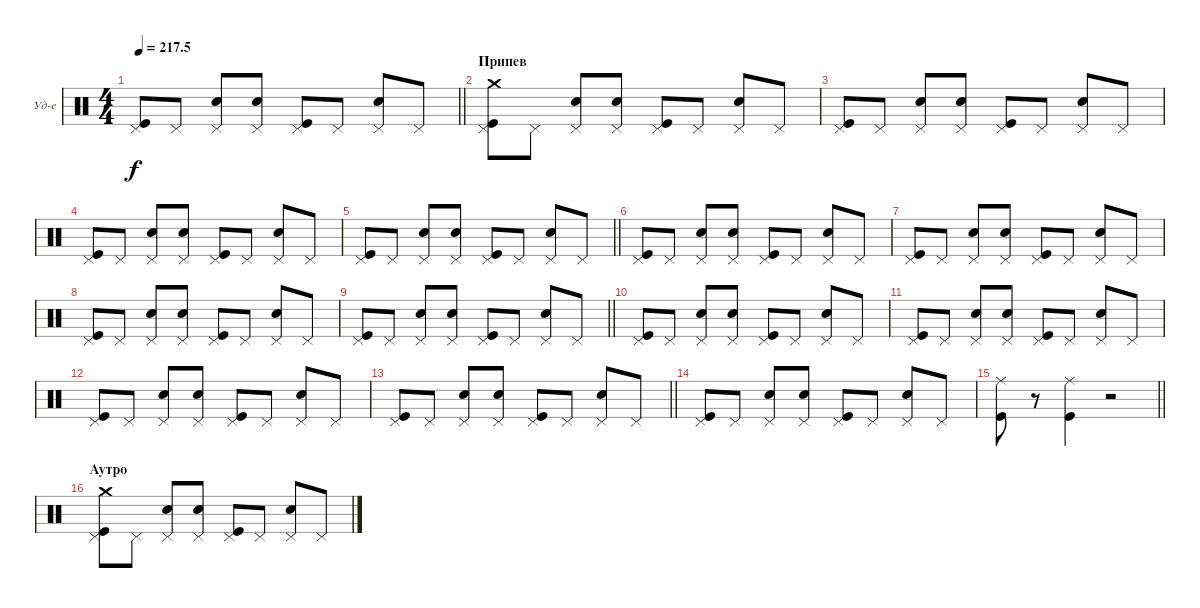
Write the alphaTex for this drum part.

\bracketExtendMode groupsimilarinstruments
\firstSystemTrackNameOrientation horizontal
\otherSystemsTrackNameOrientation horizontal
\track ("Ударные" "Уд-е") {instrument percussion}
\staff {score}
\articulation defaults
\ts (4 4)
\tempo
217.5
\accidentals auto
\clef neutral
\ottava regular
\simile none
\barLineRight lightlight
\ks c
("Pedal Hi-Hat (hit)" "Kick (hit)").8{dy f} "Pedal Hi-Hat (hit)".8 ("Pedal Hi-Hat (hit)" "Snare (hit) 2").8 ("Pedal Hi-Hat (hit)" "Snare (hit) 2").8 ("Pedal Hi-Hat (hit)" "Kick (hit)").8 "Pedal Hi-Hat (hit)".8 ("Pedal Hi-Hat (hit)" "Snare (hit) 2").8 "Pedal Hi-Hat (hit)".8 |
\section ("" "Припев")
("Pedal Hi-Hat (hit)" "Kick (hit)" "Crash medium (hit)").8 "Pedal Hi-Hat (hit)".8 ("Pedal Hi-Hat (hit)" "Snare (hit) 2").8 ("Pedal Hi-Hat (hit)" "Snare (hit) 2").8 ("Pedal Hi-Hat (hit)" "Kick (hit)").8 "Pedal Hi-Hat (hit)".8 ("Pedal Hi-Hat (hit)" "Snare (hit) 2").8 "Pedal Hi-Hat (hit)".8 |
("Pedal Hi-Hat (hit)" "Kick (hit)").8 "Pedal Hi-Hat (hit)".8 ("Pedal Hi-Hat (hit)" "Snare (hit) 2").8 ("Pedal Hi-Hat (hit)" "Snare (hit) 2").8 ("Pedal Hi-Hat (hit)" "Kick (hit)").8 "Pedal Hi-Hat (hit)".8 ("Pedal Hi-Hat (hit)" "Snare (hit) 2").8 "Pedal Hi-Hat (hit)".8 |
("Pedal Hi-Hat (hit)" "Kick (hit)").8 "Pedal Hi-Hat (hit)".8 ("Pedal Hi-Hat (hit)" "Snare (hit) 2").8 ("Pedal Hi-Hat (hit)" "Snare (hit) 2").8 ("Pedal Hi-Hat (hit)" "Kick (hit)").8 "Pedal Hi-Hat (hit)".8 ("Pedal Hi-Hat (hit)" "Snare (hit) 2").8 "Pedal Hi-Hat (hit)".8 |
\barLineRight lightlight
("Pedal Hi-Hat (hit)" "Kick (hit)").8 "Pedal Hi-Hat (hit)".8 ("Pedal Hi-Hat (hit)" "Snare (hit) 2").8 ("Pedal Hi-Hat (hit)" "Snare (hit) 2").8 ("Pedal Hi-Hat (hit)" "Kick (hit)").8 "Pedal Hi-Hat (hit)".8 ("Pedal Hi-Hat (hit)" "Snare (hit) 2").8 "Pedal Hi-Hat (hit)".8 |
("Pedal Hi-Hat (hit)" "Kick (hit)").8 "Pedal Hi-Hat (hit)".8 ("Pedal Hi-Hat (hit)" "Snare (hit) 2").8 ("Pedal Hi-Hat (hit)" "Snare (hit) 2").8 ("Pedal Hi-Hat (hit)" "Kick (hit)").8 "Pedal Hi-Hat (hit)".8 ("Pedal Hi-Hat (hit)" "Snare (hit) 2").8 "Pedal Hi-Hat (hit)".8 |
("Pedal Hi-Hat (hit)" "Kick (hit)").8 "Pedal Hi-Hat (hit)".8 ("Pedal Hi-Hat (hit)" "Snare (hit) 2").8 ("Pedal Hi-Hat (hit)" "Snare (hit) 2").8 ("Pedal Hi-Hat (hit)" "Kick (hit)").8 "Pedal Hi-Hat (hit)".8 ("Pedal Hi-Hat (hit)" "Snare (hit) 2").8 "Pedal Hi-Hat (hit)".8 |
("Pedal Hi-Hat (hit)" "Kick (hit)").8 "Pedal Hi-Hat (hit)".8 ("Pedal Hi-Hat (hit)" "Snare (hit) 2").8 ("Pedal Hi-Hat (hit)" "Snare (hit) 2").8 ("Pedal Hi-Hat (hit)" "Kick (hit)").8 "Pedal Hi-Hat (hit)".8 ("Pedal Hi-Hat (hit)" "Snare (hit) 2").8 "Pedal Hi-Hat (hit)".8 |
\barLineRight lightlight
("Pedal Hi-Hat (hit)" "Kick (hit)").8 "Pedal Hi-Hat (hit)".8 ("Pedal Hi-Hat (hit)" "Snare (hit) 2").8 ("Pedal Hi-Hat (hit)" "Snare (hit) 2").8 ("Pedal Hi-Hat (hit)" "Kick (hit)").8 "Pedal Hi-Hat (hit)".8 ("Pedal Hi-Hat (hit)" "Snare (hit) 2").8 "Pedal Hi-Hat (hit)".8 |
("Pedal Hi-Hat (hit)" "Kick (hit)").8 "Pedal Hi-Hat (hit)".8 ("Pedal Hi-Hat (hit)" "Snare (hit) 2").8 ("Pedal Hi-Hat (hit)" "Snare (hit) 2").8 ("Pedal Hi-Hat (hit)" "Kick (hit)").8 "Pedal Hi-Hat (hit)".8 ("Pedal Hi-Hat (hit)" "Snare (hit) 2").8 "Pedal Hi-Hat (hit)".8 |
("Pedal Hi-Hat (hit)" "Kick (hit)").8 "Pedal Hi-Hat (hit)".8 ("Pedal Hi-Hat (hit)" "Snare (hit) 2").8 ("Pedal Hi-Hat (hit)" "Snare (hit) 2").8 ("Pedal Hi-Hat (hit)" "Kick (hit)").8 "Pedal Hi-Hat (hit)".8 ("Pedal Hi-Hat (hit)" "Snare (hit) 2").8 "Pedal Hi-Hat (hit)".8 |
("Pedal Hi-Hat (hit)" "Kick (hit)").8 "Pedal Hi-Hat (hit)".8 ("Pedal Hi-Hat (hit)" "Snare (hit) 2").8 ("Pedal Hi-Hat (hit)" "Snare (hit) 2").8 ("Pedal Hi-Hat (hit)" "Kick (hit)").8 "Pedal Hi-Hat (hit)".8 ("Pedal Hi-Hat (hit)" "Snare (hit) 2").8 "Pedal Hi-Hat (hit)".8 |
\barLineRight lightlight
("Pedal Hi-Hat (hit)" "Kick (hit)").8 "Pedal Hi-Hat (hit)".8 ("Pedal Hi-Hat (hit)" "Snare (hit) 2").8 ("Pedal Hi-Hat (hit)" "Snare (hit) 2").8 ("Pedal Hi-Hat (hit)" "Kick (hit)").8 "Pedal Hi-Hat (hit)".8 ("Pedal Hi-Hat (hit)" "Snare (hit) 2").8 "Pedal Hi-Hat (hit)".8 |
("Pedal Hi-Hat (hit)" "Kick (hit)").8 "Pedal Hi-Hat (hit)".8 ("Pedal Hi-Hat (hit)" "Snare (hit) 2").8 ("Pedal Hi-Hat (hit)" "Snare (hit) 2").8 ("Pedal Hi-Hat (hit)" "Kick (hit)").8 "Pedal Hi-Hat (hit)".8 ("Pedal Hi-Hat (hit)" "Snare (hit) 2").8 "Pedal Hi-Hat (hit)".8 |
\barLineRight lightlight
("Kick (hit)" "Ride (middle)").8 r.8 ("Kick (hit)" "Ride (middle)").4 r.2 |
\section ("" "Аутро")
("Pedal Hi-Hat (hit)" "Kick (hit)" "Crash medium (hit)").8 "Pedal Hi-Hat (hit)".8 ("Pedal Hi-Hat (hit)" "Snare (hit) 2").8 ("Pedal Hi-Hat (hit)" "Snare (hit) 2").8 ("Pedal Hi-Hat (hit)" "Kick (hit)").8 "Pedal Hi-Hat (hit)".8 ("Pedal Hi-Hat (hit)" "Snare (hit) 2").8 "Pedal Hi-Hat (hit)".8
